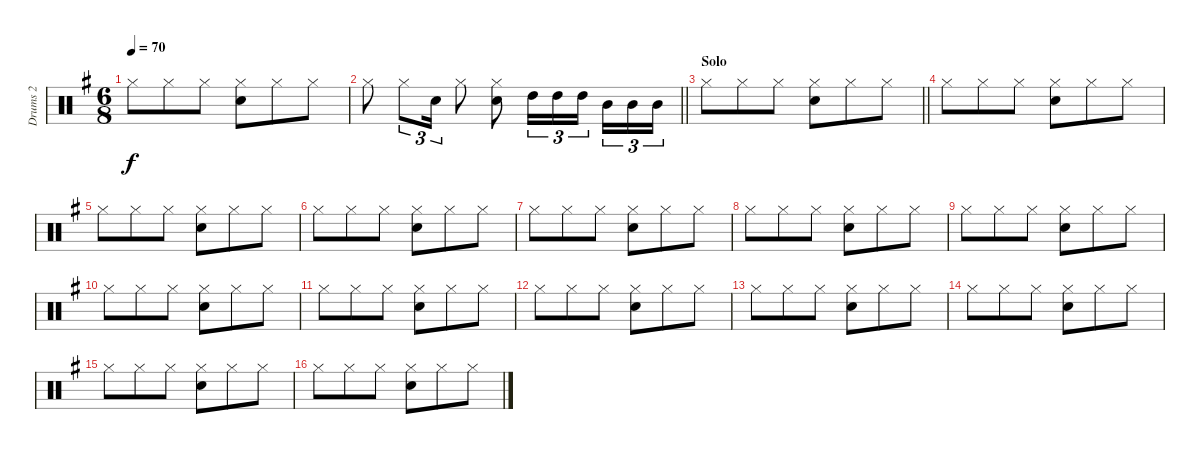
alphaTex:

\track ("Drums 2" "Drums 2") {instrument percussion}
\staff {score}
\articulation defaults
\ts (6 8)
\tempo 70
\clef neutral
\ks g "Hi-Hat (closed)".8{dy f} "Hi-Hat (closed)".8 "Hi-Hat (closed)".8
("Snare (hit) 2" "Hi-Hat (closed)").8 "Hi-Hat (closed)".8 "Hi-Hat (closed)".8 |
\barLineRight lightlight "Hi-Hat (closed)".8 "Hi-Hat (closed)".8{tu (3 2)} "Snare (hit) 2".16{tu (3 2)} "Hi-Hat (closed)".8
("Hi-Hat (closed)" "Snare (hit) 2").8 "High Tom (hit)".16{tu (3 2)} "High Tom (hit)".16{tu (3 2)} "High Tom (hit)".16{tu (3 2) beam splitsecondary} "Mid Tom (hit)".16{tu (3 2)} "Mid Tom (hit)".16{tu (3 2)} "Mid Tom (hit)".16{tu (3 2)} |
\section ("" "Solo")
\barLineRight lightlight "Hi-Hat (closed)".8 "Hi-Hat (closed)".8 "Hi-Hat (closed)".8
("Snare (hit) 2" "Hi-Hat (closed)").8 "Hi-Hat (closed)".8 "Hi-Hat (closed)".8 |
\section ("" "")
"Hi-Hat (closed)".8 "Hi-Hat (closed)".8 "Hi-Hat (closed)".8 ("Snare (hit) 2" "Hi-Hat (closed)").8 "Hi-Hat (closed)".8 "Hi-Hat (closed)".8 |
"Hi-Hat (closed)".8 "Hi-Hat (closed)".8 "Hi-Hat (closed)".8 ("Snare (hit) 2" "Hi-Hat (closed)").8 "Hi-Hat (closed)".8 "Hi-Hat (closed)".8 |
"Hi-Hat (closed)".8 "Hi-Hat (closed)".8 "Hi-Hat (closed)".8 ("Snare (hit) 2" "Hi-Hat (closed)").8 "Hi-Hat (closed)".8 "Hi-Hat (closed)".8 |
"Hi-Hat (closed)".8 "Hi-Hat (closed)".8 "Hi-Hat (closed)".8 ("Snare (hit) 2" "Hi-Hat (closed)").8 "Hi-Hat (closed)".8 "Hi-Hat (closed)".8 |
"Hi-Hat (closed)".8 "Hi-Hat (closed)".8 "Hi-Hat (closed)".8 ("Snare (hit) 2" "Hi-Hat (closed)").8 "Hi-Hat (closed)".8 "Hi-Hat (closed)".8 |
"Hi-Hat (closed)".8 "Hi-Hat (closed)".8 "Hi-Hat (closed)".8 ("Snare (hit) 2" "Hi-Hat (closed)").8 "Hi-Hat (closed)".8 "Hi-Hat (closed)".8 |
"Hi-Hat (closed)".8 "Hi-Hat (closed)".8 "Hi-Hat (closed)".8 ("Snare (hit) 2" "Hi-Hat (closed)").8 "Hi-Hat (closed)".8 "Hi-Hat (closed)".8 |
"Hi-Hat (closed)".8 "Hi-Hat (closed)".8 "Hi-Hat (closed)".8 ("Snare (hit) 2" "Hi-Hat (closed)").8 "Hi-Hat (closed)".8 "Hi-Hat (closed)".8 |
"Hi-Hat (closed)".8 "Hi-Hat (closed)".8 "Hi-Hat (closed)".8 ("Snare (hit) 2" "Hi-Hat (closed)").8 "Hi-Hat (closed)".8 "Hi-Hat (closed)".8 |
"Hi-Hat (closed)".8 "Hi-Hat (closed)".8 "Hi-Hat (closed)".8 ("Snare (hit) 2" "Hi-Hat (closed)").8 "Hi-Hat (closed)".8 "Hi-Hat (closed)".8 |
"Hi-Hat (closed)".8 "Hi-Hat (closed)".8 "Hi-Hat (closed)".8 ("Snare (hit) 2" "Hi-Hat (closed)").8 "Hi-Hat (closed)".8 "Hi-Hat (closed)".8 |
"Hi-Hat (closed)".8 "Hi-Hat (closed)".8 "Hi-Hat (closed)".8 ("Snare (hit) 2" "Hi-Hat (closed)").8 "Hi-Hat (closed)".8 "Hi-Hat (closed)".8 |
"Hi-Hat (closed)".8 "Hi-Hat (closed)".8 "Hi-Hat (closed)".8 ("Snare (hit) 2" "Hi-Hat (closed)").8 "Hi-Hat (closed)".8 "Hi-Hat (closed)".8
